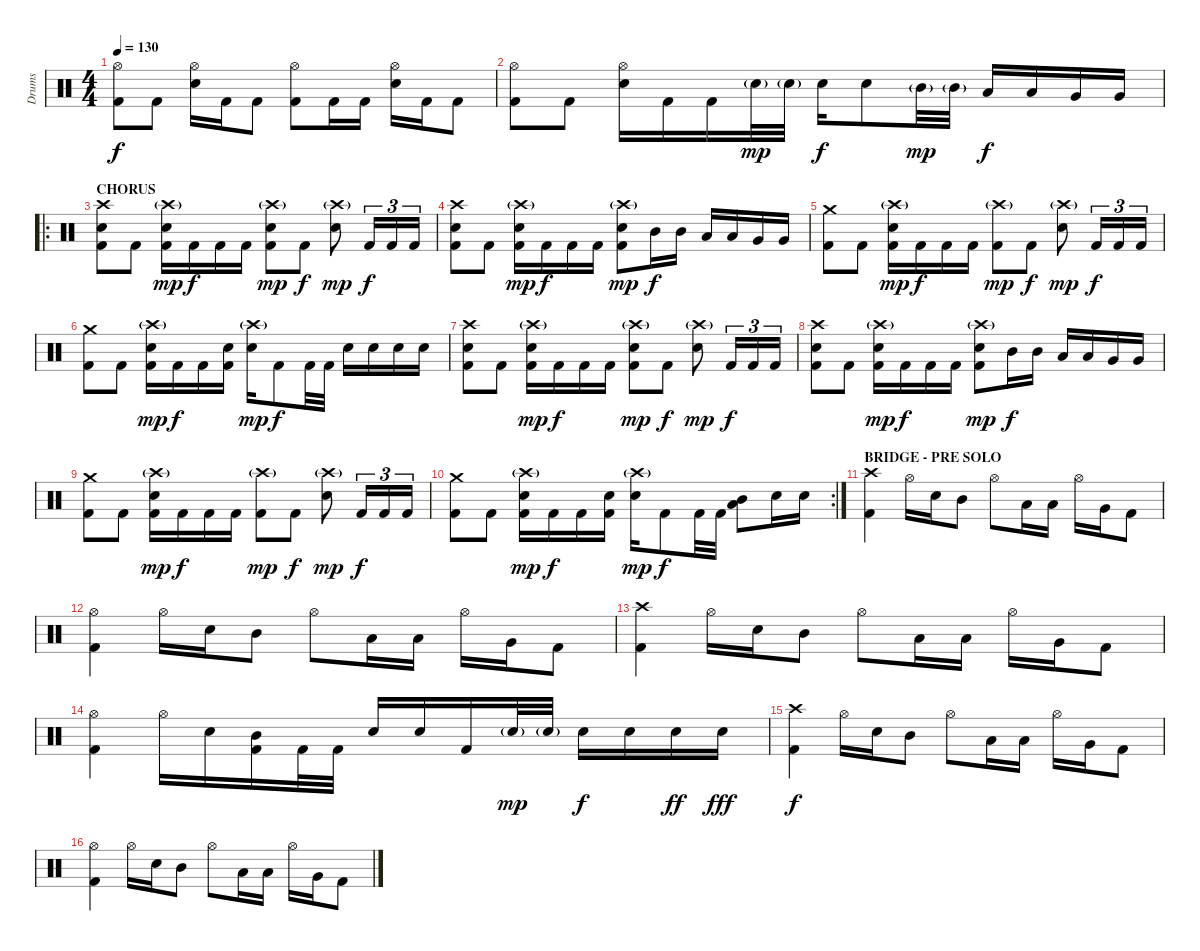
\track ("Drums" "Drums") {instrument percussion}
\staff {score}
\articulation defaults
\ts (4 4)
\tempo 130
\clef neutral
\ks c
("Hi-Hat (open)" "Kick (hit) 2").8{dy f} "Kick (hit) 2".8 ("Hi-Hat (open)" "Electric Snare (hit)").16 "Kick (hit) 2".16 "Kick (hit) 2".8 ("Hi-Hat (open)" "Kick (hit) 2").8 "Kick (hit) 2".16 "Kick (hit) 2".16 ("Hi-Hat (open)" "Electric Snare (hit)").16 "Kick (hit) 2".16 "Kick (hit) 2".8 |
("Hi-Hat (open)" "Kick (hit) 2").8 "Kick (hit) 2".8 ("Hi-Hat (open)" "Electric Snare (hit)").16 "Kick (hit) 2".16 "Kick (hit) 2".16 "Electric Snare (hit)"{g}.32{dy mp} "Electric Snare (hit)"{g}.32 "Electric Snare (hit)".16{dy f} "Electric Snare (hit)".8 "Mid Tom (hit)"{g}.32{dy mp} "Mid Tom (hit)"{g}.32 "Low Tom (hit)".16{dy f} "Low Tom (hit)".16 "Very Low Tom (hit)".16 "Very Low Tom (hit)".16 |
\ro
\section ("" "CHORUS")
("Crash high (hit)" "Electric Snare (hit)" "Kick (hit) 2").8 "Kick (hit) 2".8 ("Crash high (hit)"{g} "Electric Snare (hit)" "Kick (hit) 2").16{dy mp} "Kick (hit) 2".16{dy f} "Kick (hit) 2".16 "Kick (hit) 2".16 ("Crash high (hit)"{g} "Electric Snare (hit)" "Kick (hit) 2").8{dy mp} "Kick (hit) 2".8{dy f} ("Crash high (hit)"{g} "Electric Snare (hit)").8{dy mp} "Kick (hit) 2".16{tu (3 2) dy f} "Kick (hit) 2".16{tu (3 2)} "Kick (hit) 2".16{tu (3 2)} |
("Crash high (hit)" "Electric Snare (hit)" "Kick (hit) 2").8 "Kick (hit) 2".8 ("Crash high (hit)"{g} "Electric Snare (hit)" "Kick (hit) 2").16{dy mp} "Kick (hit) 2".16{dy f} "Kick (hit) 2".16 "Kick (hit) 2".16 ("Crash high (hit)"{g} "Electric Snare (hit)" "Kick (hit) 2").8{dy mp} "Mid Tom (hit)".16{dy f} "Mid Tom (hit)".16 "Low Tom (hit)".16 "Low Tom (hit)".16 "Very Low Tom (hit)".16 "Very Low Tom (hit)".16 |
("Crash medium (hit)" "Kick (hit) 2").8 "Kick (hit) 2".8 ("Crash high (hit)"{g} "Electric Snare (hit)" "Kick (hit) 2").16{dy mp} "Kick (hit) 2".16{dy f} "Kick (hit) 2".16 "Kick (hit) 2".16 ("Crash high (hit)"{g} "Kick (hit) 2").8{dy mp} "Kick (hit) 2".8{dy f} ("Crash high (hit)"{g} "Electric Snare (hit)").8{dy mp} "Kick (hit) 2".16{tu (3 2) dy f} "Kick (hit) 2".16{tu (3 2)} "Kick (hit) 2".16{tu (3 2)} |
("Crash medium (hit)" "Kick (hit) 2").8 "Kick (hit) 2".8 ("Crash high (hit)"{g} "Electric Snare (hit)" "Kick (hit) 2").16{dy mp} "Kick (hit) 2".16{dy f} "Kick (hit) 2".16 ("Electric Snare (hit)" "Kick (hit) 2").16 ("Crash high (hit)"{g} "Electric Snare (hit)").16{dy mp} "Kick (hit) 2".8{dy f} "Kick (hit) 2".32 "Kick (hit) 2".32 "Electric Snare (hit)".16 "Electric Snare (hit)".16 "Electric Snare (hit)".16 "Electric Snare (hit)".16 |
("Crash high (hit)" "Electric Snare (hit)" "Kick (hit) 2").8 "Kick (hit) 2".8 ("Crash high (hit)"{g} "Electric Snare (hit)" "Kick (hit) 2").16{dy mp} "Kick (hit) 2".16{dy f} "Kick (hit) 2".16 "Kick (hit) 2".16 ("Crash high (hit)"{g} "Electric Snare (hit)" "Kick (hit) 2").8{dy mp} "Kick (hit) 2".8{dy f} ("Crash high (hit)"{g} "Electric Snare (hit)").8{dy mp} "Kick (hit) 2".16{tu (3 2) dy f} "Kick (hit) 2".16{tu (3 2)} "Kick (hit) 2".16{tu (3 2)} |
("Crash high (hit)" "Electric Snare (hit)" "Kick (hit) 2").8 "Kick (hit) 2".8 ("Crash high (hit)"{g} "Electric Snare (hit)" "Kick (hit) 2").16{dy mp} "Kick (hit) 2".16{dy f} "Kick (hit) 2".16 "Kick (hit) 2".16 ("Crash high (hit)"{g} "Electric Snare (hit)" "Kick (hit) 2").8{dy mp} "Mid Tom (hit)".16{dy f} "Mid Tom (hit)".16 "Low Tom (hit)".16 "Low Tom (hit)".16 "Very Low Tom (hit)".16 "Very Low Tom (hit)".16 |
("Crash medium (hit)" "Kick (hit) 2").8 "Kick (hit) 2".8 ("Crash high (hit)"{g} "Electric Snare (hit)" "Kick (hit) 2").16{dy mp} "Kick (hit) 2".16{dy f} "Kick (hit) 2".16 "Kick (hit) 2".16 ("Crash high (hit)"{g} "Kick (hit) 2").8{dy mp} "Kick (hit) 2".8{dy f} ("Crash high (hit)"{g} "Electric Snare (hit)").8{dy mp} "Kick (hit) 2".16{tu (3 2) dy f} "Kick (hit) 2".16{tu (3 2)} "Kick (hit) 2".16{tu (3 2)} |
\rc 2
("Crash medium (hit)" "Kick (hit) 2").8 "Kick (hit) 2".8 ("Crash high (hit)"{g} "Electric Snare (hit)" "Kick (hit) 2").16{dy mp} "Kick (hit) 2".16{dy f} "Kick (hit) 2".16 ("Electric Snare (hit)" "Kick (hit) 2").16 ("Crash high (hit)"{g} "Electric Snare (hit)").16{dy mp} "Kick (hit) 2".8{dy f} "Kick (hit) 2".32 "Kick (hit) 2".32 ("Low Tom (hit)" "Mid Tom (hit)").8 "Electric Snare (hit)".16 "Electric Snare (hit)".16 |
\section ("" "BRIDGE - PRE SOLO")
("Crash high (hit)" "Kick (hit) 2").4 "Hi-Hat (open)".16 "Electric Snare (hit)".16 "Mid Tom (hit)".8 "Hi-Hat (open)".8 "Low Tom (hit)".16 "Low Tom (hit)".16 "Hi-Hat (open)".16 "Very Low Tom (hit)".16 "Kick (hit) 2".8 |
("Hi-Hat (open)" "Kick (hit) 2").4 "Hi-Hat (open)".16 "Electric Snare (hit)".16 "Mid Tom (hit)".8 "Hi-Hat (open)".8 "Low Tom (hit)".16 "Low Tom (hit)".16 "Hi-Hat (open)".16 "Very Low Tom (hit)".16 "Kick (hit) 2".8 |
("Crash high (hit)" "Kick (hit) 2").4 "Hi-Hat (open)".16 "Electric Snare (hit)".16 "Mid Tom (hit)".8 "Hi-Hat (open)".8 "Low Tom (hit)".16 "Low Tom (hit)".16 "Hi-Hat (open)".16 "Very Low Tom (hit)".16 "Kick (hit) 2".8 |
("Hi-Hat (open)" "Kick (hit) 2").4 "Hi-Hat (open)".16 "Electric Snare (hit)".16 ("Mid Tom (hit)" "Kick (hit) 2").16 "Kick (hit) 2".32 "Kick (hit) 2".32 "Electric Snare (hit)".16 "Electric Snare (hit)".16 "Kick (hit) 2".16 "Electric Snare (hit)"{g}.32{dy mp} "Electric Snare (hit)"{g}.32 "Electric Snare (hit)".16{dy f} "Electric Snare (hit)".16 "Electric Snare (hit)".16{dy ff} "Electric Snare (hit)".16{dy fff} |
("Crash high (hit)" "Kick (hit) 2").4{dy f} "Hi-Hat (open)".16 "Electric Snare (hit)".16 "Mid Tom (hit)".8 "Hi-Hat (open)".8 "Low Tom (hit)".16 "Low Tom (hit)".16 "Hi-Hat (open)".16 "Very Low Tom (hit)".16 "Kick (hit) 2".8 |
("Hi-Hat (open)" "Kick (hit) 2").4 "Hi-Hat (open)".16 "Electric Snare (hit)".16 "Mid Tom (hit)".8 "Hi-Hat (open)".8 "Low Tom (hit)".16 "Low Tom (hit)".16 "Hi-Hat (open)".16 "Very Low Tom (hit)".16 "Kick (hit) 2".8
